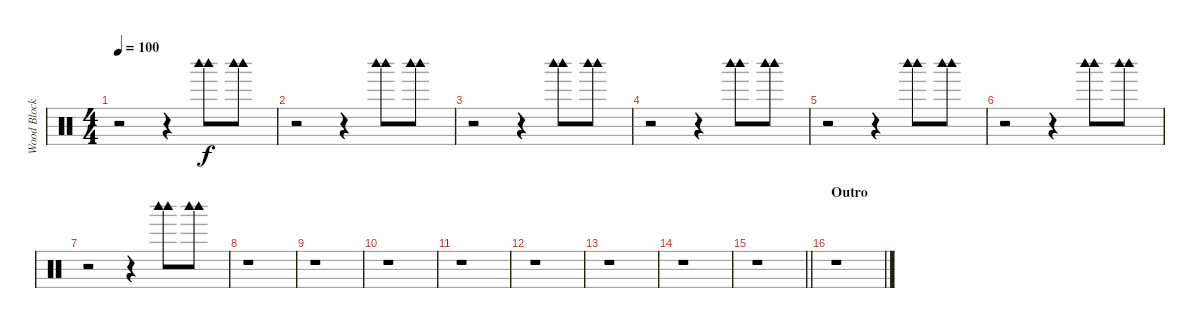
\track ("Wood Block - Chad" "Wood Block") {instrument percussion}
\staff {score}
\articulation defaults
\ts (4 4)
\tempo 100
\clef neutral
\ks c
r.2{dy f} r.4 ("Woodblock high (hit)" "Woodblock high (hit)").8 ("Woodblock high (hit)" "Woodblock high (hit)").8 |
r.2 r.4 ("Woodblock high (hit)" "Woodblock high (hit)").8 ("Woodblock high (hit)" "Woodblock high (hit)").8 |
r.2 r.4 ("Woodblock high (hit)" "Woodblock high (hit)").8 ("Woodblock high (hit)" "Woodblock high (hit)").8 |
r.2 r.4 ("Woodblock high (hit)" "Woodblock high (hit)").8 ("Woodblock high (hit)" "Woodblock high (hit)").8 |
r.2 r.4 ("Woodblock high (hit)" "Woodblock high (hit)").8 ("Woodblock high (hit)" "Woodblock high (hit)").8 |
r.2 r.4 ("Woodblock high (hit)" "Woodblock high (hit)").8 ("Woodblock high (hit)" "Woodblock high (hit)").8 |
r.2 r.4 ("Woodblock high (hit)" "Woodblock high (hit)").8 ("Woodblock high (hit)" "Woodblock high (hit)").8 |
r.1 |
r.1 |
r.1 |
r.1 |
r.1 |
r.1 |
r.1 |
\barLineRight lightlight
r.1 |
\section ("" "Outro")
r.1
